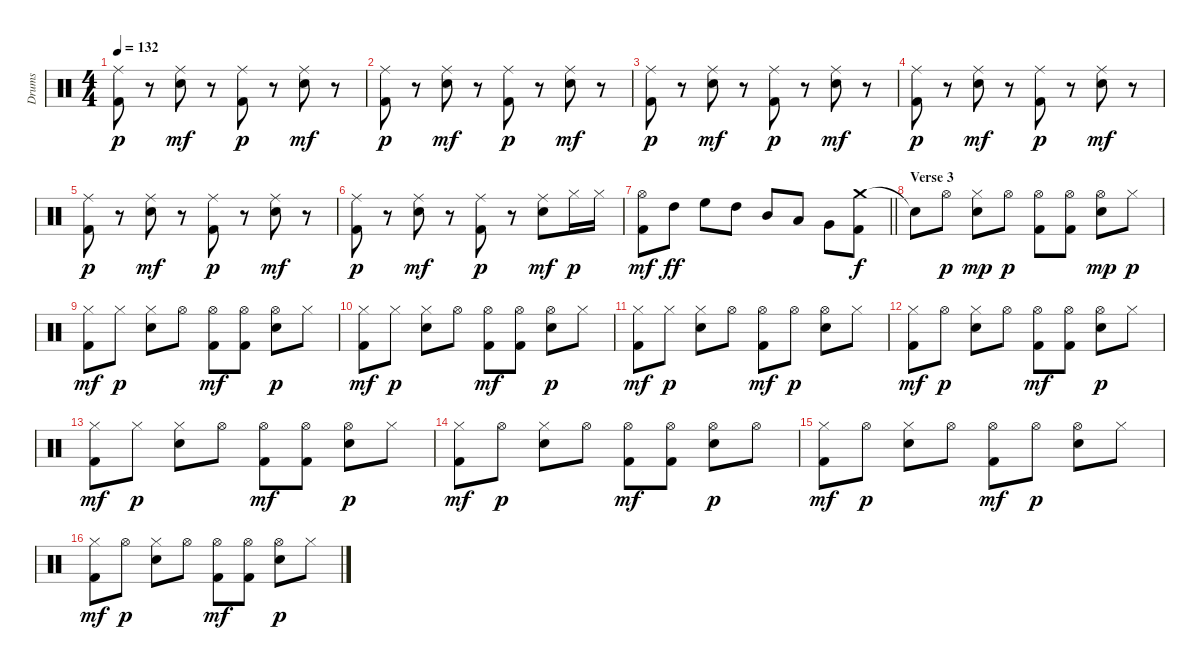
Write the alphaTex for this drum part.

\track ("Drums" "Drums") {instrument percussion}
\staff {score}
\articulation defaults
\ts (4 4)
\tempo 132
\clef neutral
\ks c
("Ride (middle)" "Kick (hit) 2").8{dy p} r.8 ("Ride (middle)" "Snare (hit) 2").8{dy mf} r.8 ("Ride (middle)" "Kick (hit) 2").8{dy p} r.8 ("Ride (middle)" "Snare (hit) 2").8{dy mf} r.8 |
("Ride (middle)" "Kick (hit) 2").8{dy p} r.8 ("Ride (middle)" "Snare (hit) 2").8{dy mf} r.8 ("Ride (middle)" "Kick (hit) 2").8{dy p} r.8 ("Ride (middle)" "Snare (hit) 2").8{dy mf} r.8 |
("Ride (middle)" "Kick (hit) 2").8{dy p} r.8 ("Ride (middle)" "Snare (hit) 2").8{dy mf} r.8 ("Ride (middle)" "Kick (hit) 2").8{dy p} r.8 ("Ride (middle)" "Snare (hit) 2").8{dy mf} r.8 |
("Ride (middle)" "Kick (hit) 2").8{dy p} r.8 ("Ride (middle)" "Snare (hit) 2").8{dy mf} r.8 ("Ride (middle)" "Kick (hit) 2").8{dy p} r.8 ("Ride (middle)" "Snare (hit) 2").8{dy mf} r.8 |
("Ride (middle)" "Kick (hit) 2").8{dy p} r.8 ("Ride (middle)" "Snare (hit) 2").8{dy mf} r.8 ("Ride (middle)" "Kick (hit) 2").8{dy p} r.8 ("Ride (middle)" "Snare (hit) 2").8{dy mf} r.8 |
("Ride (middle)" "Kick (hit) 2").8{dy p} r.8 ("Ride (middle)" "Snare (hit) 2").8{dy mf} r.8 ("Ride (middle)" "Kick (hit) 2").8{dy p} r.8 ("Ride (middle)" "Snare (hit) 2").8{dy mf} "Hi-Hat (closed)".16{dy p} "Hi-Hat (closed)".16 |
\barLineRight lightlight
("Hi-Hat (open)" "Kick (hit) 2").8{dy mf} "High Tom (hit)".8{dy ff} "High Floor Tom (hit)".8 "High Tom (hit)".8 "Mid Tom (hit)".8 "Low Tom (hit)".8 "Very Low Tom (hit)".8 ("Crash medium (hit)" "Kick (hit) 2").8{dy f} |
\section ("" "Verse 3")
"Snare (hit)"{t}.8 "Hi-Hat (open)".8{dy p} ("Hi-Hat (closed)" "Snare (hit) 2").8{dy mp} "Hi-Hat (open)".8{dy p} ("Hi-Hat (open)" "Kick (hit) 2").8 ("Hi-Hat (open)" "Kick (hit) 2").8 ("Hi-Hat (open)" "Snare (hit) 2").8{dy mp} "Hi-Hat (closed)".8{dy p} |
("Hi-Hat (closed)" "Kick (hit) 2").8{dy mf} "Hi-Hat (closed)".8{dy p} ("Hi-Hat (closed)" "Snare (hit) 2").8 "Hi-Hat (open)".8 ("Hi-Hat (open)" "Kick (hit) 2").8{dy mf} ("Hi-Hat (open)" "Kick (hit) 2").8 ("Hi-Hat (open)" "Snare (hit) 2").8{dy p} "Hi-Hat (closed)".8 |
("Hi-Hat (closed)" "Kick (hit) 2").8{dy mf} "Hi-Hat (closed)".8{dy p} ("Hi-Hat (closed)" "Snare (hit) 2").8 "Hi-Hat (open)".8 ("Hi-Hat (open)" "Kick (hit) 2").8{dy mf} ("Hi-Hat (open)" "Kick (hit) 2").8 ("Hi-Hat (open)" "Snare (hit) 2").8{dy p} "Hi-Hat (closed)".8 |
("Hi-Hat (closed)" "Kick (hit) 2").8{dy mf} "Hi-Hat (closed)".8{dy p} ("Hi-Hat (closed)" "Snare (hit) 2").8 "Hi-Hat (open)".8 ("Hi-Hat (open)" "Kick (hit) 2").8{dy mf} "Hi-Hat (open)".8{dy p} ("Hi-Hat (open)" "Snare (hit) 2").8 "Hi-Hat (closed)".8 |
("Hi-Hat (closed)" "Kick (hit) 2").8{dy mf} "Hi-Hat (open)".8{dy p} ("Hi-Hat (closed)" "Snare (hit) 2").8 "Hi-Hat (open)".8 ("Hi-Hat (open)" "Kick (hit) 2").8{dy mf} ("Hi-Hat (open)" "Kick (hit) 2").8 ("Hi-Hat (open)" "Snare (hit) 2").8{dy p} "Hi-Hat (closed)".8 |
("Hi-Hat (closed)" "Kick (hit) 2").8{dy mf} "Hi-Hat (closed)".8{dy p} ("Hi-Hat (closed)" "Snare (hit) 2").8 "Hi-Hat (open)".8 ("Hi-Hat (open)" "Kick (hit) 2").8{dy mf} ("Hi-Hat (open)" "Kick (hit) 2").8 ("Hi-Hat (open)" "Snare (hit) 2").8{dy p} "Hi-Hat (closed)".8 |
("Hi-Hat (closed)" "Kick (hit) 2").8{dy mf} "Hi-Hat (open)".8{dy p} ("Hi-Hat (closed)" "Snare (hit) 2").8 "Hi-Hat (open)".8 ("Hi-Hat (open)" "Kick (hit) 2").8{dy mf} ("Hi-Hat (open)" "Kick (hit) 2").8 ("Hi-Hat (open)" "Snare (hit) 2").8{dy p} "Hi-Hat (open)".8 |
("Hi-Hat (closed)" "Kick (hit) 2").8{dy mf} "Hi-Hat (open)".8{dy p} ("Hi-Hat (closed)" "Snare (hit) 2").8 "Hi-Hat (open)".8 ("Hi-Hat (open)" "Kick (hit) 2").8{dy mf} "Hi-Hat (open)".8{dy p} ("Hi-Hat (open)" "Snare (hit) 2").8 "Hi-Hat (closed)".8 |
("Hi-Hat (closed)" "Kick (hit) 2").8{dy mf} "Hi-Hat (open)".8{dy p} ("Hi-Hat (closed)" "Snare (hit) 2").8 "Hi-Hat (open)".8 ("Hi-Hat (open)" "Kick (hit) 2").8{dy mf} ("Hi-Hat (open)" "Kick (hit) 2").8 ("Hi-Hat (open)" "Snare (hit) 2").8{dy p} "Hi-Hat (closed)".8
